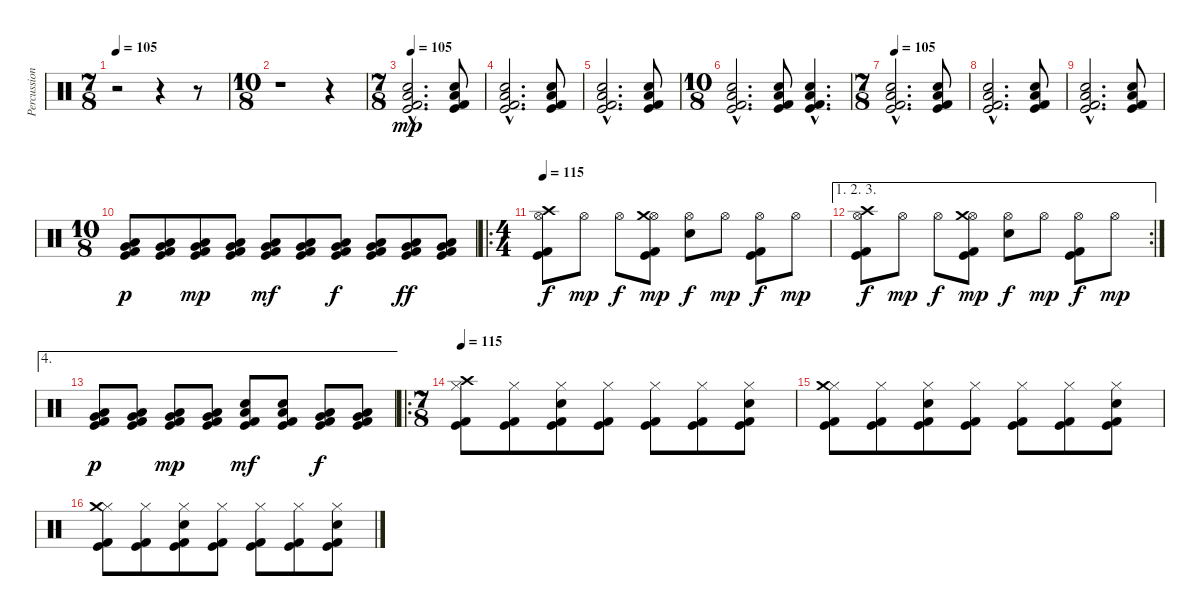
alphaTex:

\track ("Percussion" "Percussion") {instrument percussion}
\staff {score}
\articulation defaults
\ts (7 8)
\tempo 105
\clef neutral
\ks c
r.2{dy fff} r.4 r.8 |
\ts (10 8)
r.1 r.4 |
\ts (7 8)
\tempo 105
("Snare (hit) 2"{hac} "Low Tom (hit)"{hac} "Kick (hit) 2"{hac} "Kick (hit)"{hac}).2{d dy mp} ("Snare (hit) 2" "Low Tom (hit)" "Kick (hit) 2" "Kick (hit)").8 |
("Snare (hit) 2"{hac} "Low Tom (hit)"{hac} "Kick (hit) 2"{hac} "Kick (hit)"{hac}).2{d} ("Snare (hit) 2" "Low Tom (hit)" "Kick (hit) 2" "Kick (hit)").8 |
("Snare (hit) 2"{hac} "Low Tom (hit)"{hac} "Kick (hit) 2"{hac} "Kick (hit)"{hac}).2{d} ("Snare (hit) 2" "Low Tom (hit)" "Kick (hit) 2" "Kick (hit)").8 |
\ts (10 8)
("Snare (hit) 2"{hac} "Low Tom (hit)"{hac} "Kick (hit) 2"{hac} "Kick (hit)"{hac}).2{d} ("Snare (hit) 2" "Low Tom (hit)" "Kick (hit) 2" "Kick (hit)").8 ("Snare (hit) 2"{hac} "Low Tom (hit)"{hac} "Kick (hit) 2"{hac} "Kick (hit)"{hac}).4{d} |
\ts (7 8)
\tempo 105
("Snare (hit) 2"{hac} "Low Tom (hit)"{hac} "Kick (hit) 2"{hac} "Kick (hit)"{hac}).2{d} ("Snare (hit) 2" "Low Tom (hit)" "Kick (hit) 2" "Kick (hit)").8 |
("Snare (hit) 2"{hac} "Low Tom (hit)"{hac} "Kick (hit) 2"{hac} "Kick (hit)"{hac}).2{d} ("Snare (hit) 2" "Low Tom (hit)" "Kick (hit) 2" "Kick (hit)").8 |
("Snare (hit) 2"{hac} "Low Tom (hit)"{hac} "Kick (hit) 2"{hac} "Kick (hit)"{hac}).2{d} ("Snare (hit) 2" "Low Tom (hit)" "Kick (hit) 2" "Kick (hit)").8 |
\ts (10 8)
("Very Low Tom (hit)" "Low Tom (hit)" "Kick (hit) 2" "Kick (hit)").8{dy p} ("Very Low Tom (hit)" "Low Tom (hit)" "Kick (hit) 2" "Kick (hit)").8 ("Very Low Tom (hit)" "Low Tom (hit)" "Kick (hit) 2" "Kick (hit)").8{dy mp} ("Very Low Tom (hit)" "Low Tom (hit)" "Kick (hit) 2" "Kick (hit)").8 ("Very Low Tom (hit)" "Low Tom (hit)" "Kick (hit) 2" "Kick (hit)").8{dy mf} ("Very Low Tom (hit)" "Low Tom (hit)" "Kick (hit) 2" "Kick (hit)").8 ("Very Low Tom (hit)" "Low Tom (hit)" "Kick (hit) 2" "Kick (hit)").8{dy f} ("Very Low Tom (hit)" "Low Tom (hit)" "Kick (hit) 2" "Kick (hit)").8 ("Very Low Tom (hit)" "Low Tom (hit)" "Kick (hit) 2" "Kick (hit)").8{dy ff} ("Very Low Tom (hit)" "Low Tom (hit)" "Kick (hit) 2" "Kick (hit)").8 |
\ro
\ts (4 4)
\tempo 115
("Hi-Hat (open)" "Crash high (hit)" "Kick (hit) 2" "Kick (hit)").8{dy f} "Hi-Hat (open)".8{dy mp} "Hi-Hat (open)".8{dy f} ("Hi-Hat (open)" "Crash medium (hit)" "Kick (hit) 2" "Kick (hit)").8{dy mp} ("Hi-Hat (open)" "Snare (hit) 2").8{dy f} "Hi-Hat (open)".8{dy mp} ("Hi-Hat (open)" "Kick (hit) 2" "Kick (hit)").8{dy f} "Hi-Hat (open)".8{dy mp} |
\ae (1 2 3)
\rc 2
("Hi-Hat (open)" "Crash high (hit)" "Kick (hit) 2" "Kick (hit)").8{dy f} "Hi-Hat (open)".8{dy mp} "Hi-Hat (open)".8{dy f} ("Hi-Hat (open)" "Crash medium (hit)" "Kick (hit) 2" "Kick (hit)").8{dy mp} ("Hi-Hat (open)" "Snare (hit) 2").8{dy f} "Hi-Hat (open)".8{dy mp} ("Hi-Hat (open)" "Kick (hit) 2" "Kick (hit)").8{dy f} "Hi-Hat (open)".8{dy mp} |
\ae 4
("Very Low Tom (hit)" "Low Tom (hit)" "Kick (hit) 2" "Kick (hit)").8{dy p} ("Very Low Tom (hit)" "Low Tom (hit)" "Kick (hit) 2" "Kick (hit)").8 ("Very Low Tom (hit)" "Low Tom (hit)" "Kick (hit) 2" "Kick (hit)").8{dy mp} ("Very Low Tom (hit)" "Low Tom (hit)" "Kick (hit) 2" "Kick (hit)").8 ("Snare (hit) 2" "Low Tom (hit)" "Kick (hit) 2" "Kick (hit)").8{dy mf} ("Snare (hit) 2" "Low Tom (hit)" "Kick (hit) 2" "Kick (hit)").8 ("Very Low Tom (hit)" "Low Tom (hit)" "Kick (hit) 2" "Kick (hit)").8{dy f} ("Very Low Tom (hit)" "Low Tom (hit)" "Kick (hit) 2" "Kick (hit)").8 |
\ro
\ts (7 8)
\tempo 115
("Hi-Hat (closed)" "Crash high (hit)" "Kick (hit) 2" "Kick (hit)").8 ("Hi-Hat (closed)" "Kick (hit) 2" "Kick (hit)").8 ("Hi-Hat (closed)" "Snare (hit) 2" "Kick (hit) 2" "Kick (hit)").8 ("Hi-Hat (closed)" "Kick (hit) 2" "Kick (hit)").8 ("Hi-Hat (closed)" "Kick (hit) 2" "Kick (hit)").8 ("Hi-Hat (closed)" "Kick (hit) 2" "Kick (hit)").8 ("Hi-Hat (closed)" "Snare (hit) 2" "Kick (hit) 2" "Kick (hit)").8 |
("Hi-Hat (closed)" "Crash medium (hit)" "Kick (hit) 2" "Kick (hit)").8 ("Hi-Hat (closed)" "Kick (hit) 2" "Kick (hit)").8 ("Hi-Hat (closed)" "Snare (hit) 2" "Kick (hit) 2" "Kick (hit)").8 ("Hi-Hat (closed)" "Kick (hit) 2" "Kick (hit)").8 ("Hi-Hat (closed)" "Kick (hit) 2" "Kick (hit)").8 ("Hi-Hat (closed)" "Kick (hit) 2" "Kick (hit)").8 ("Hi-Hat (closed)" "Snare (hit) 2" "Kick (hit) 2" "Kick (hit)").8 |
("Hi-Hat (closed)" "Crash medium (hit)" "Kick (hit) 2" "Kick (hit)").8 ("Hi-Hat (closed)" "Kick (hit) 2" "Kick (hit)").8 ("Hi-Hat (closed)" "Snare (hit) 2" "Kick (hit) 2" "Kick (hit)").8 ("Hi-Hat (closed)" "Kick (hit) 2" "Kick (hit)").8 ("Hi-Hat (closed)" "Kick (hit) 2" "Kick (hit)").8 ("Hi-Hat (closed)" "Kick (hit) 2" "Kick (hit)").8 ("Hi-Hat (closed)" "Snare (hit) 2" "Kick (hit) 2" "Kick (hit)").8
